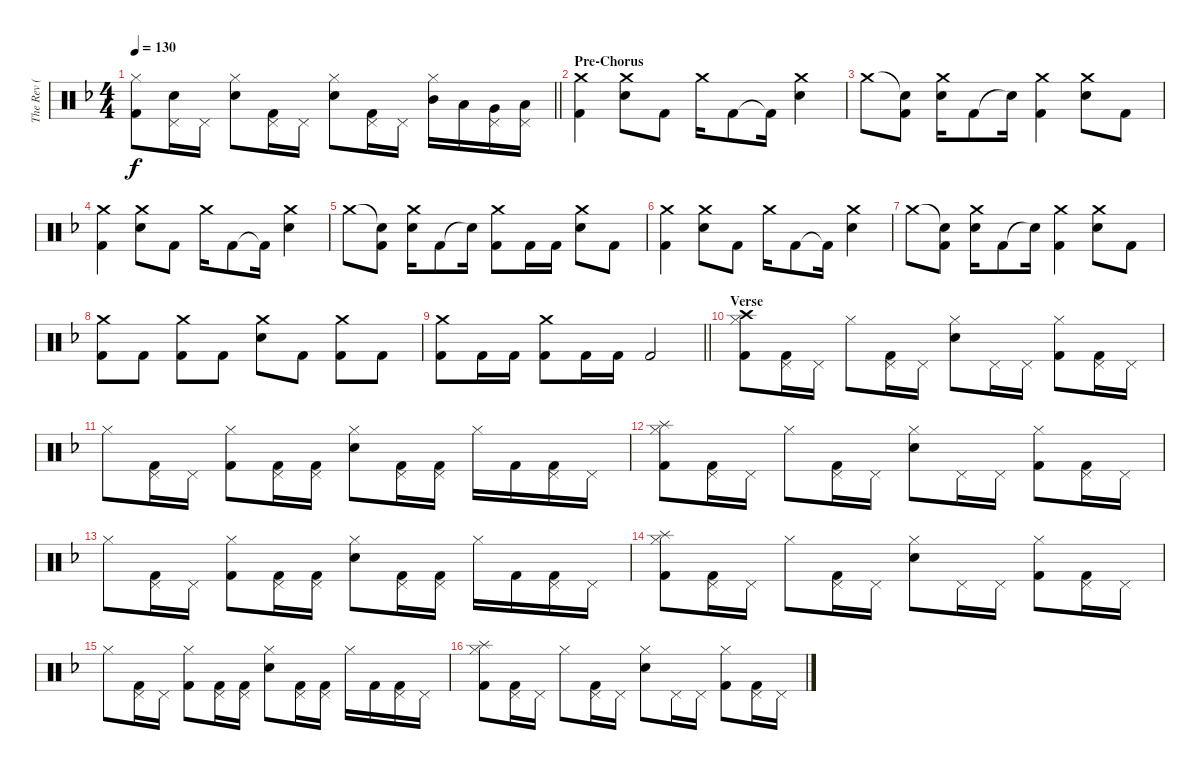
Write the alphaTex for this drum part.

\track ("The Rev ( Drums )" "The Rev ( ") {instrument percussion}
\staff {score}
\articulation defaults
\ts (4 4)
\tempo 130
\clef neutral
\barLineRight lightlight
\ks f
("Hi-Hat (closed)" "Kick (hit) 2").8{dy f} ("Pedal Hi-Hat (hit)" "Snare (hit) 2").16 "Pedal Hi-Hat (hit)".16 ("Hi-Hat (closed)" "Snare (hit) 2").8 ("Pedal Hi-Hat (hit)" "Kick (hit) 2").16 "Pedal Hi-Hat (hit)".16 ("Hi-Hat (closed)" "Snare (hit) 2").8 ("Pedal Hi-Hat (hit)" "Kick (hit) 2").16 "Pedal Hi-Hat (hit)".16 ("Hi-Hat (closed)" "Mid Tom (hit)").16 "Low Tom (hit)".16 ("Pedal Hi-Hat (hit)" "Very Low Tom (hit)").16 ("Pedal Hi-Hat (hit)" "Low Floor Tom (hit)").16 |
\section ("" "Pre-Chorus")
("Crash medium (hit)" "Kick (hit) 2").4 ("Crash medium (hit)" "Snare (hit) 2").8 "Kick (hit) 2".8 "Crash medium (hit)".16 "Kick (hit) 2".8 "Kick (hit) 2"{t}.16 ("Crash medium (hit)" "Snare (hit) 2").4 |
"Crash medium (hit)".8 ("Snare (hit)"{t} "Kick (hit) 2").8 ("Crash medium (hit)" "Snare (hit) 2").16 "Kick (hit) 2".8 "Snare (hit)"{t}.16 ("Crash medium (hit)" "Kick (hit) 2").4 ("Crash medium (hit)" "Snare (hit) 2").8 "Kick (hit) 2".8 |
("Crash medium (hit)" "Kick (hit) 2").4 ("Crash medium (hit)" "Snare (hit) 2").8 "Kick (hit) 2".8 "Crash medium (hit)".16 "Kick (hit) 2".8 "Kick (hit) 2"{t}.16 ("Crash medium (hit)" "Snare (hit) 2").4 |
"Crash medium (hit)".8 ("Snare (hit)"{t} "Kick (hit) 2").8 ("Crash medium (hit)" "Snare (hit) 2").16 "Kick (hit) 2".8 "Snare (hit)"{t}.16 ("Crash medium (hit)" "Kick (hit) 2").8 "Kick (hit) 2".16 "Kick (hit) 2".16 ("Crash medium (hit)" "Snare (hit) 2").8 "Kick (hit) 2".8 |
("Crash medium (hit)" "Kick (hit) 2").4 ("Crash medium (hit)" "Snare (hit) 2").8 "Kick (hit) 2".8 "Crash medium (hit)".16 "Kick (hit) 2".8 "Kick (hit) 2"{t}.16 ("Crash medium (hit)" "Snare (hit) 2").4 |
"Crash medium (hit)".8 ("Snare (hit)"{t} "Kick (hit) 2").8 ("Crash medium (hit)" "Snare (hit) 2").16 "Kick (hit) 2".8 "Snare (hit)"{t}.16 ("Crash medium (hit)" "Kick (hit) 2").4 ("Crash medium (hit)" "Snare (hit) 2").8 "Kick (hit) 2".8 |
("Crash medium (hit)" "Kick (hit) 2").8 "Kick (hit) 2".8 ("Crash medium (hit)" "Kick (hit) 2").8 "Kick (hit) 2".8 ("Crash medium (hit)" "Snare (hit) 2").8 "Kick (hit) 2".8 ("Crash medium (hit)" "Kick (hit) 2").8 "Kick (hit) 2".8 |
\barLineRight lightlight
("Crash medium (hit)" "Kick (hit) 2").8 "Kick (hit) 2".16 "Kick (hit) 2".16 ("Crash medium (hit)" "Kick (hit) 2").8 "Kick (hit) 2".16 "Kick (hit) 2".16 "Kick (hit) 2".2 |
\section ("" "Verse")
("Crash high (hit)" "Hi-Hat (closed)" "Kick (hit) 2").8 ("Pedal Hi-Hat (hit)" "Kick (hit) 2").16 "Pedal Hi-Hat (hit)".16 "Hi-Hat (closed)".8 ("Pedal Hi-Hat (hit)" "Kick (hit) 2").16 "Pedal Hi-Hat (hit)".16 ("Hi-Hat (closed)" "Snare (hit) 2").8 "Pedal Hi-Hat (hit)".16 "Pedal Hi-Hat (hit)".16 ("Hi-Hat (closed)" "Kick (hit) 2").8 ("Pedal Hi-Hat (hit)" "Kick (hit) 2").16 "Pedal Hi-Hat (hit)".16 |
"Hi-Hat (closed)".8 ("Pedal Hi-Hat (hit)" "Kick (hit) 2").16 "Pedal Hi-Hat (hit)".16 ("Hi-Hat (closed)" "Kick (hit) 2").8 ("Pedal Hi-Hat (hit)" "Kick (hit) 2").16 ("Pedal Hi-Hat (hit)" "Kick (hit) 2").16 ("Hi-Hat (closed)" "Snare (hit) 2").8 ("Pedal Hi-Hat (hit)" "Kick (hit) 2").16 ("Pedal Hi-Hat (hit)" "Kick (hit) 2").16 "Hi-Hat (closed)".16 "Kick (hit) 2".16 ("Pedal Hi-Hat (hit)" "Kick (hit) 2").16 "Pedal Hi-Hat (hit)".16 |
("Splash (hit)" "Hi-Hat (closed)" "Kick (hit) 2").8 ("Pedal Hi-Hat (hit)" "Kick (hit) 2").16 "Pedal Hi-Hat (hit)".16 "Hi-Hat (closed)".8 ("Pedal Hi-Hat (hit)" "Kick (hit) 2").16 "Pedal Hi-Hat (hit)".16 ("Hi-Hat (closed)" "Snare (hit) 2").8 "Pedal Hi-Hat (hit)".16 "Pedal Hi-Hat (hit)".16 ("Hi-Hat (closed)" "Kick (hit) 2").8 ("Pedal Hi-Hat (hit)" "Kick (hit) 2").16 "Pedal Hi-Hat (hit)".16 |
"Hi-Hat (closed)".8 ("Pedal Hi-Hat (hit)" "Kick (hit) 2").16 "Pedal Hi-Hat (hit)".16 ("Hi-Hat (closed)" "Kick (hit) 2").8 ("Pedal Hi-Hat (hit)" "Kick (hit) 2").16 ("Pedal Hi-Hat (hit)" "Kick (hit) 2").16 ("Hi-Hat (closed)" "Snare (hit) 2").8 ("Pedal Hi-Hat (hit)" "Kick (hit) 2").16 ("Pedal Hi-Hat (hit)" "Kick (hit) 2").16 "Hi-Hat (closed)".16 "Kick (hit) 2".16 ("Pedal Hi-Hat (hit)" "Kick (hit) 2").16 "Pedal Hi-Hat (hit)".16 |
("Splash (hit)" "Hi-Hat (closed)" "Kick (hit) 2").8 ("Pedal Hi-Hat (hit)" "Kick (hit) 2").16 "Pedal Hi-Hat (hit)".16 "Hi-Hat (closed)".8 ("Pedal Hi-Hat (hit)" "Kick (hit) 2").16 "Pedal Hi-Hat (hit)".16 ("Hi-Hat (closed)" "Snare (hit) 2").8 "Pedal Hi-Hat (hit)".16 "Pedal Hi-Hat (hit)".16 ("Hi-Hat (closed)" "Kick (hit) 2").8 ("Pedal Hi-Hat (hit)" "Kick (hit) 2").16 "Pedal Hi-Hat (hit)".16 |
"Hi-Hat (closed)".8 ("Pedal Hi-Hat (hit)" "Kick (hit) 2").16 "Pedal Hi-Hat (hit)".16 ("Hi-Hat (closed)" "Kick (hit) 2").8 ("Pedal Hi-Hat (hit)" "Kick (hit) 2").16 ("Pedal Hi-Hat (hit)" "Kick (hit) 2").16 ("Hi-Hat (closed)" "Snare (hit) 2").8 ("Pedal Hi-Hat (hit)" "Kick (hit) 2").16 ("Pedal Hi-Hat (hit)" "Kick (hit) 2").16 "Hi-Hat (closed)".16 "Kick (hit) 2".16 ("Pedal Hi-Hat (hit)" "Kick (hit) 2").16 "Pedal Hi-Hat (hit)".16 |
("Splash (hit)" "Hi-Hat (closed)" "Kick (hit) 2").8 ("Pedal Hi-Hat (hit)" "Kick (hit) 2").16 "Pedal Hi-Hat (hit)".16 "Hi-Hat (closed)".8 ("Pedal Hi-Hat (hit)" "Kick (hit) 2").16 "Pedal Hi-Hat (hit)".16 ("Hi-Hat (closed)" "Snare (hit) 2").8 "Pedal Hi-Hat (hit)".16 "Pedal Hi-Hat (hit)".16 ("Hi-Hat (closed)" "Kick (hit) 2").8 ("Pedal Hi-Hat (hit)" "Kick (hit) 2").16 "Pedal Hi-Hat (hit)".16
